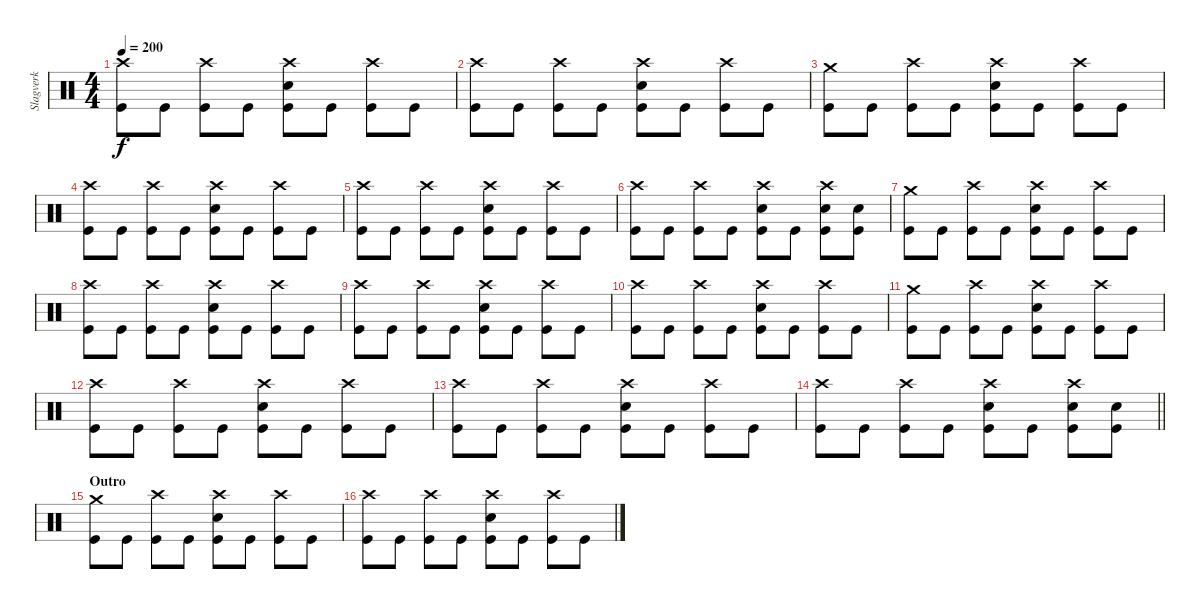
\track ("Slagverk" "Slagverk") {instrument percussion}
\staff {score}
\articulation defaults
\ts (4 4)
\tempo 200
\clef neutral
\ks c
("Crash high (hit)" "Kick (hit)").8{dy f} "Kick (hit)".8 ("Crash high (hit)" "Kick (hit)").8 "Kick (hit)".8 ("Crash high (hit)" "Snare (hit) 2" "Kick (hit)").8 "Kick (hit)".8 ("Crash high (hit)" "Kick (hit)").8 "Kick (hit)".8 |
("Crash high (hit)" "Kick (hit)").8 "Kick (hit)".8 ("Crash high (hit)" "Kick (hit)").8 "Kick (hit)".8 ("Crash high (hit)" "Snare (hit) 2" "Kick (hit)").8 "Kick (hit)".8 ("Crash high (hit)" "Kick (hit)").8 "Kick (hit)".8 |
("Crash medium (hit)" "Kick (hit)").8 "Kick (hit)".8 ("Crash high (hit)" "Kick (hit)").8 "Kick (hit)".8 ("Crash high (hit)" "Snare (hit) 2" "Kick (hit)").8 "Kick (hit)".8 ("Crash high (hit)" "Kick (hit)").8 "Kick (hit)".8 |
("Crash high (hit)" "Kick (hit)").8 "Kick (hit)".8 ("Crash high (hit)" "Kick (hit)").8 "Kick (hit)".8 ("Crash high (hit)" "Snare (hit) 2" "Kick (hit)").8 "Kick (hit)".8 ("Crash high (hit)" "Kick (hit)").8 "Kick (hit)".8 |
("Crash high (hit)" "Kick (hit)").8 "Kick (hit)".8 ("Crash high (hit)" "Kick (hit)").8 "Kick (hit)".8 ("Crash high (hit)" "Snare (hit) 2" "Kick (hit)").8 "Kick (hit)".8 ("Crash high (hit)" "Kick (hit)").8 "Kick (hit)".8 |
("Crash high (hit)" "Kick (hit)").8 "Kick (hit)".8 ("Crash high (hit)" "Kick (hit)").8 "Kick (hit)".8 ("Crash high (hit)" "Snare (hit) 2" "Kick (hit)").8 "Kick (hit)".8 ("Crash high (hit)" "Snare (hit) 2" "Kick (hit)").8 ("Snare (hit) 2" "Kick (hit)").8 |
("Crash medium (hit)" "Kick (hit)").8 "Kick (hit)".8 ("Crash high (hit)" "Kick (hit)").8 "Kick (hit)".8 ("Crash high (hit)" "Snare (hit) 2" "Kick (hit)").8 "Kick (hit)".8 ("Crash high (hit)" "Kick (hit)").8 "Kick (hit)".8 |
("Crash high (hit)" "Kick (hit)").8 "Kick (hit)".8 ("Crash high (hit)" "Kick (hit)").8 "Kick (hit)".8 ("Crash high (hit)" "Snare (hit) 2" "Kick (hit)").8 "Kick (hit)".8 ("Crash high (hit)" "Kick (hit)").8 "Kick (hit)".8 |
("Crash high (hit)" "Kick (hit)").8 "Kick (hit)".8 ("Crash high (hit)" "Kick (hit)").8 "Kick (hit)".8 ("Crash high (hit)" "Snare (hit) 2" "Kick (hit)").8 "Kick (hit)".8 ("Crash high (hit)" "Kick (hit)").8 "Kick (hit)".8 |
("Crash high (hit)" "Kick (hit)").8 "Kick (hit)".8 ("Crash high (hit)" "Kick (hit)").8 "Kick (hit)".8 ("Crash high (hit)" "Snare (hit) 2" "Kick (hit)").8 "Kick (hit)".8 ("Crash high (hit)" "Kick (hit)").8 "Kick (hit)".8 |
("Crash medium (hit)" "Kick (hit)").8 "Kick (hit)".8 ("Crash high (hit)" "Kick (hit)").8 "Kick (hit)".8 ("Crash high (hit)" "Snare (hit) 2" "Kick (hit)").8 "Kick (hit)".8 ("Crash high (hit)" "Kick (hit)").8 "Kick (hit)".8 |
("Crash high (hit)" "Kick (hit)").8 "Kick (hit)".8 ("Crash high (hit)" "Kick (hit)").8 "Kick (hit)".8 ("Crash high (hit)" "Snare (hit) 2" "Kick (hit)").8 "Kick (hit)".8 ("Crash high (hit)" "Kick (hit)").8 "Kick (hit)".8 |
("Crash high (hit)" "Kick (hit)").8 "Kick (hit)".8 ("Crash high (hit)" "Kick (hit)").8 "Kick (hit)".8 ("Crash high (hit)" "Snare (hit) 2" "Kick (hit)").8 "Kick (hit)".8 ("Crash high (hit)" "Kick (hit)").8 "Kick (hit)".8 |
\barLineRight lightlight
("Crash high (hit)" "Kick (hit)").8 "Kick (hit)".8 ("Crash high (hit)" "Kick (hit)").8 "Kick (hit)".8 ("Crash high (hit)" "Snare (hit) 2" "Kick (hit)").8 "Kick (hit)".8 ("Crash high (hit)" "Snare (hit) 2" "Kick (hit)").8 ("Snare (hit) 2" "Kick (hit)").8 |
\section ("" "Outro")
("Crash medium (hit)" "Kick (hit)").8 "Kick (hit)".8 ("Crash high (hit)" "Kick (hit)").8 "Kick (hit)".8 ("Crash high (hit)" "Snare (hit) 2" "Kick (hit)").8 "Kick (hit)".8 ("Crash high (hit)" "Kick (hit)").8 "Kick (hit)".8 |
("Crash high (hit)" "Kick (hit)").8 "Kick (hit)".8 ("Crash high (hit)" "Kick (hit)").8 "Kick (hit)".8 ("Crash high (hit)" "Snare (hit) 2" "Kick (hit)").8 "Kick (hit)".8 ("Crash high (hit)" "Kick (hit)").8 "Kick (hit)".8
